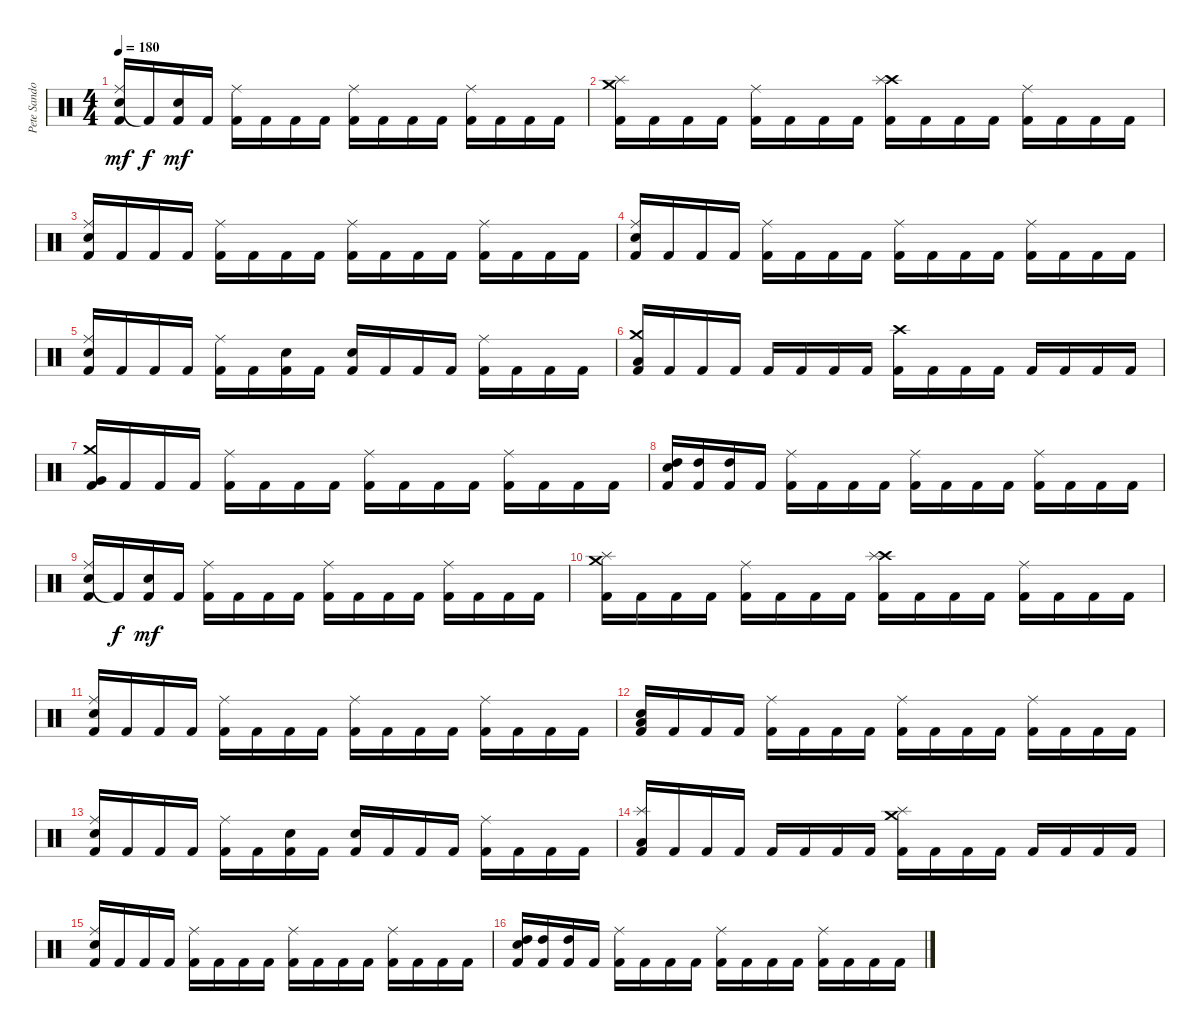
\track ("Pete Sandoval" "Pete Sando") {instrument percussion}
\staff {score}
\articulation defaults
\ts (4 4)
\tempo 180
\clef neutral
\ks c
("Snare (hit) 2" "Ride (middle)" "Kick (hit) 2").16{dy mf} "Kick (hit) 2"{t}.16{dy f} ("Snare (hit) 2" "Kick (hit) 2").16{dy mf} "Kick (hit) 2".16 ("Ride (middle)" "Kick (hit) 2").16 "Kick (hit) 2".16 "Kick (hit) 2".16 "Kick (hit) 2".16 ("Ride (middle)" "Kick (hit) 2").16 "Kick (hit) 2".16 "Kick (hit) 2".16 "Kick (hit) 2".16 ("Ride (middle)" "Kick (hit) 2").16 "Kick (hit) 2".16 "Kick (hit) 2".16 "Kick (hit) 2".16 |
("Crash medium (hit)" "Splash (hit)" "Kick (hit) 2").16 "Kick (hit) 2".16 "Kick (hit) 2".16 "Kick (hit) 2".16 ("Ride (middle)" "Kick (hit) 2").16 "Kick (hit) 2".16 "Kick (hit) 2".16 "Kick (hit) 2".16 ("Crash high (hit)" "Splash (hit)" "Kick (hit) 2").16 "Kick (hit) 2".16 "Kick (hit) 2".16 "Kick (hit) 2".16 ("Ride (middle)" "Kick (hit) 2").16 "Kick (hit) 2".16 "Kick (hit) 2".16 "Kick (hit) 2".16 |
("Snare (hit) 2" "Ride (middle)" "Kick (hit) 2").16 "Kick (hit) 2".16 "Kick (hit) 2".16 "Kick (hit) 2".16 ("Ride (middle)" "Kick (hit) 2").16 "Kick (hit) 2".16 "Kick (hit) 2".16 "Kick (hit) 2".16 ("Ride (middle)" "Kick (hit) 2").16 "Kick (hit) 2".16 "Kick (hit) 2".16 "Kick (hit) 2".16 ("Ride (middle)" "Kick (hit) 2").16 "Kick (hit) 2".16 "Kick (hit) 2".16 "Kick (hit) 2".16 |
("Snare (hit) 2" "Ride (middle)" "Kick (hit) 2").16 "Kick (hit) 2".16 "Kick (hit) 2".16 "Kick (hit) 2".16 ("Ride (middle)" "Kick (hit) 2").16 "Kick (hit) 2".16 "Kick (hit) 2".16 "Kick (hit) 2".16 ("Ride (middle)" "Kick (hit) 2").16 "Kick (hit) 2".16 "Kick (hit) 2".16 "Kick (hit) 2".16 ("Ride (middle)" "Kick (hit) 2").16 "Kick (hit) 2".16 "Kick (hit) 2".16 "Kick (hit) 2".16 |
("Snare (hit) 2" "Ride (middle)" "Kick (hit) 2").16 "Kick (hit) 2".16 "Kick (hit) 2".16 "Kick (hit) 2".16 ("Ride (middle)" "Kick (hit) 2").16 "Kick (hit) 2".16 ("Snare (hit) 2" "Kick (hit) 2").16 "Kick (hit) 2".16 ("Snare (hit) 2" "Kick (hit) 2").16 "Kick (hit) 2".16 "Kick (hit) 2".16 "Kick (hit) 2".16 ("Ride (middle)" "Kick (hit) 2").16 "Kick (hit) 2".16 "Kick (hit) 2".16 "Kick (hit) 2".16 |
("Crash medium (hit)" "Low Floor Tom (hit)" "Kick (hit) 2").16 "Kick (hit) 2".16 "Kick (hit) 2".16 "Kick (hit) 2".16 "Kick (hit) 2".16 "Kick (hit) 2".16 "Kick (hit) 2".16 "Kick (hit) 2".16 ("Crash high (hit)" "Kick (hit) 2").16 "Kick (hit) 2".16 "Kick (hit) 2".16 "Kick (hit) 2".16 "Kick (hit) 2".16 "Kick (hit) 2".16 "Kick (hit) 2".16 "Kick (hit) 2".16 |
("Crash medium (hit)" "Very Low Tom (hit)" "Kick (hit) 2").16 "Kick (hit) 2".16 "Kick (hit) 2".16 "Kick (hit) 2".16 ("Ride (middle)" "Kick (hit) 2").16 "Kick (hit) 2".16 "Kick (hit) 2".16 "Kick (hit) 2".16 ("Ride (middle)" "Kick (hit) 2").16 "Kick (hit) 2".16 "Kick (hit) 2".16 "Kick (hit) 2".16 ("Ride (middle)" "Kick (hit) 2").16 "Kick (hit) 2".16 "Kick (hit) 2".16 "Kick (hit) 2".16 |
("Snare (hit) 2" "High Tom (hit)" "Kick (hit) 2").16 ("High Tom (hit)" "Kick (hit) 2").16 ("High Tom (hit)" "Kick (hit) 2").16 "Kick (hit) 2".16 ("Ride (middle)" "Kick (hit) 2").16 "Kick (hit) 2".16 "Kick (hit) 2".16 "Kick (hit) 2".16 ("Ride (middle)" "Kick (hit) 2").16 "Kick (hit) 2".16 "Kick (hit) 2".16 "Kick (hit) 2".16 ("Ride (middle)" "Kick (hit) 2").16 "Kick (hit) 2".16 "Kick (hit) 2".16 "Kick (hit) 2".16 |
("Snare (hit) 2" "Ride (middle)" "Kick (hit) 2").16 "Kick (hit) 2"{t}.16{dy f} ("Snare (hit) 2" "Kick (hit) 2").16{dy mf} "Kick (hit) 2".16 ("Ride (middle)" "Kick (hit) 2").16 "Kick (hit) 2".16 "Kick (hit) 2".16 "Kick (hit) 2".16 ("Ride (middle)" "Kick (hit) 2").16 "Kick (hit) 2".16 "Kick (hit) 2".16 "Kick (hit) 2".16 ("Ride (middle)" "Kick (hit) 2").16 "Kick (hit) 2".16 "Kick (hit) 2".16 "Kick (hit) 2".16 |
("Crash medium (hit)" "Splash (hit)" "Kick (hit) 2").16 "Kick (hit) 2".16 "Kick (hit) 2".16 "Kick (hit) 2".16 ("Ride (middle)" "Kick (hit) 2").16 "Kick (hit) 2".16 "Kick (hit) 2".16 "Kick (hit) 2".16 ("Crash high (hit)" "Splash (hit)" "Kick (hit) 2").16 "Kick (hit) 2".16 "Kick (hit) 2".16 "Kick (hit) 2".16 ("Ride (middle)" "Kick (hit) 2").16 "Kick (hit) 2".16 "Kick (hit) 2".16 "Kick (hit) 2".16 |
("Snare (hit) 2" "Ride (middle)" "Kick (hit) 2").16 "Kick (hit) 2".16 "Kick (hit) 2".16 "Kick (hit) 2".16 ("Ride (middle)" "Kick (hit) 2").16 "Kick (hit) 2".16 "Kick (hit) 2".16 "Kick (hit) 2".16 ("Ride (middle)" "Kick (hit) 2").16 "Kick (hit) 2".16 "Kick (hit) 2".16 "Kick (hit) 2".16 ("Ride (middle)" "Kick (hit) 2").16 "Kick (hit) 2".16 "Kick (hit) 2".16 "Kick (hit) 2".16 |
("Snare (hit) 2" "Low Tom (hit)" "Kick (hit) 2").16 "Kick (hit) 2".16 "Kick (hit) 2".16 "Kick (hit) 2".16 ("Ride (middle)" "Kick (hit) 2").16 "Kick (hit) 2".16 "Kick (hit) 2".16 "Kick (hit) 2".16 ("Ride (middle)" "Kick (hit) 2").16 "Kick (hit) 2".16 "Kick (hit) 2".16 "Kick (hit) 2".16 ("Ride (middle)" "Kick (hit) 2").16 "Kick (hit) 2".16 "Kick (hit) 2".16 "Kick (hit) 2".16 |
("Snare (hit) 2" "Ride (middle)" "Kick (hit) 2").16 "Kick (hit) 2".16 "Kick (hit) 2".16 "Kick (hit) 2".16 ("Ride (middle)" "Kick (hit) 2").16 "Kick (hit) 2".16 ("Snare (hit) 2" "Kick (hit) 2").16 "Kick (hit) 2".16 ("Snare (hit) 2" "Kick (hit) 2").16 "Kick (hit) 2".16 "Kick (hit) 2".16 "Kick (hit) 2".16 ("Ride (middle)" "Kick (hit) 2").16 "Kick (hit) 2".16 "Kick (hit) 2".16 "Kick (hit) 2".16 |
("Splash (hit)" "Low Floor Tom (hit)" "Kick (hit) 2").16 "Kick (hit) 2".16 "Kick (hit) 2".16 "Kick (hit) 2".16 "Kick (hit) 2".16 "Kick (hit) 2".16 "Kick (hit) 2".16 "Kick (hit) 2".16 ("Crash medium (hit)" "Splash (hit)" "Kick (hit) 2").16 "Kick (hit) 2".16 "Kick (hit) 2".16 "Kick (hit) 2".16 "Kick (hit) 2".16 "Kick (hit) 2".16 "Kick (hit) 2".16 "Kick (hit) 2".16 |
("Snare (hit) 2" "Ride (middle)" "Kick (hit) 2").16 "Kick (hit) 2".16 "Kick (hit) 2".16 "Kick (hit) 2".16 ("Ride (middle)" "Kick (hit) 2").16 "Kick (hit) 2".16 "Kick (hit) 2".16 "Kick (hit) 2".16 ("Ride (middle)" "Kick (hit) 2").16 "Kick (hit) 2".16 "Kick (hit) 2".16 "Kick (hit) 2".16 ("Ride (middle)" "Kick (hit) 2").16 "Kick (hit) 2".16 "Kick (hit) 2".16 "Kick (hit) 2".16 |
("Snare (hit) 2" "High Tom (hit)" "Kick (hit) 2").16 ("High Tom (hit)" "Kick (hit) 2").16 ("High Tom (hit)" "Kick (hit) 2").16 "Kick (hit) 2".16 ("Ride (middle)" "Kick (hit) 2").16 "Kick (hit) 2".16 "Kick (hit) 2".16 "Kick (hit) 2".16 ("Ride (middle)" "Kick (hit) 2").16 "Kick (hit) 2".16 "Kick (hit) 2".16 "Kick (hit) 2".16 ("Ride (middle)" "Kick (hit) 2").16 "Kick (hit) 2".16 "Kick (hit) 2".16 "Kick (hit) 2".16
